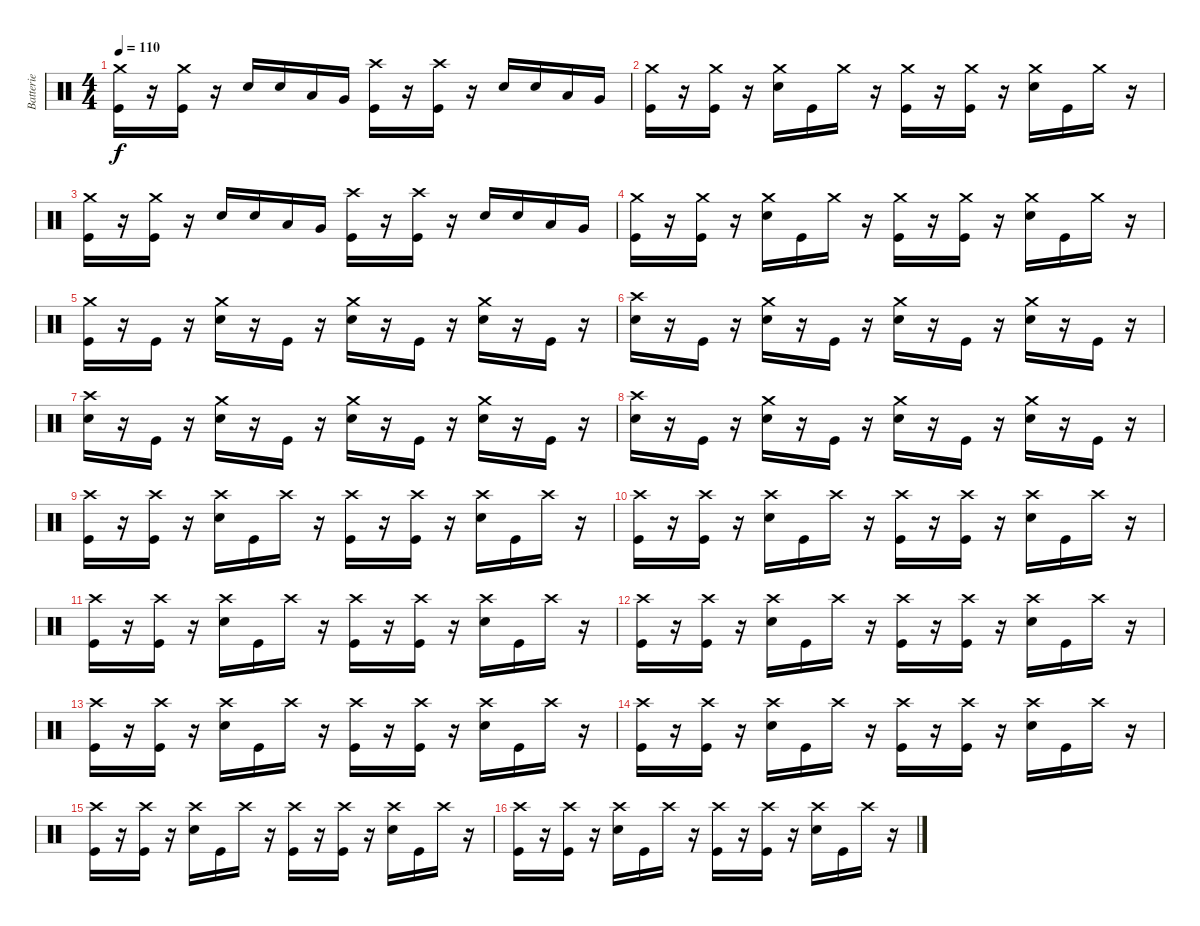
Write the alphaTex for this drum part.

\track ("Batterie" "Batterie") {instrument percussion}
\staff {score}
\articulation defaults
\ts (4 4)
\tempo 110
\clef neutral
\ks c
("Crash medium (hit)" "Kick (hit)").16{dy f} r.16 ("Crash medium (hit)" "Kick (hit)").16 r.16 "Electric Snare (hit)".16 "Electric Snare (hit)".16 "Low Tom (hit)".16 "Very Low Tom (hit)".16 ("Crash high (hit)" "Kick (hit)").16 r.16 ("Crash high (hit)" "Kick (hit)").16 r.16 "Electric Snare (hit)".16 "Electric Snare (hit)".16 "Low Tom (hit)".16 "Very Low Tom (hit)".16 |
("Crash medium (hit)" "Kick (hit)").16 r.16 ("Crash medium (hit)" "Kick (hit)").16 r.16 ("Crash medium (hit)" "Electric Snare (hit)").16 "Kick (hit)".16 "Crash medium (hit)".16 r.16 ("Crash medium (hit)" "Kick (hit)").16 r.16 ("Crash medium (hit)" "Kick (hit)").16 r.16 ("Crash medium (hit)" "Electric Snare (hit)").16 "Kick (hit)".16 "Crash medium (hit)".16 r.16 |
("Crash medium (hit)" "Kick (hit)").16 r.16 ("Crash medium (hit)" "Kick (hit)").16 r.16 "Electric Snare (hit)".16 "Electric Snare (hit)".16 "Low Tom (hit)".16 "Very Low Tom (hit)".16 ("Crash high (hit)" "Kick (hit)").16 r.16 ("Crash high (hit)" "Kick (hit)").16 r.16 "Electric Snare (hit)".16 "Electric Snare (hit)".16 "Low Tom (hit)".16 "Very Low Tom (hit)".16 |
("Crash medium (hit)" "Kick (hit)").16 r.16 ("Crash medium (hit)" "Kick (hit)").16 r.16 ("Crash medium (hit)" "Electric Snare (hit)").16 "Kick (hit)".16 "Crash medium (hit)".16 r.16 ("Crash medium (hit)" "Kick (hit)").16 r.16 ("Crash medium (hit)" "Kick (hit)").16 r.16 ("Crash medium (hit)" "Electric Snare (hit)").16 "Kick (hit)".16 "Crash medium (hit)".16 r.16 |
("Crash medium (hit)" "Kick (hit)").16 r.16 "Kick (hit)".16 r.16 ("Crash medium (hit)" "Electric Snare (hit)").16 r.16 "Kick (hit)".16 r.16 ("Crash medium (hit)" "Electric Snare (hit)").16 r.16 "Kick (hit)".16 r.16 ("Crash medium (hit)" "Electric Snare (hit)").16 r.16 "Kick (hit)".16 r.16 |
("Crash high (hit)" "Electric Snare (hit)").16 r.16 "Kick (hit)".16 r.16 ("Crash medium (hit)" "Electric Snare (hit)").16 r.16 "Kick (hit)".16 r.16 ("Crash medium (hit)" "Electric Snare (hit)").16 r.16 "Kick (hit)".16 r.16 ("Crash medium (hit)" "Electric Snare (hit)").16 r.16 "Kick (hit)".16 r.16 |
("Crash high (hit)" "Electric Snare (hit)").16 r.16 "Kick (hit)".16 r.16 ("Crash medium (hit)" "Electric Snare (hit)").16 r.16 "Kick (hit)".16 r.16 ("Crash medium (hit)" "Electric Snare (hit)").16 r.16 "Kick (hit)".16 r.16 ("Crash medium (hit)" "Electric Snare (hit)").16 r.16 "Kick (hit)".16 r.16 |
("Crash high (hit)" "Electric Snare (hit)").16 r.16 "Kick (hit)".16 r.16 ("Crash medium (hit)" "Electric Snare (hit)").16 r.16 "Kick (hit)".16 r.16 ("Crash medium (hit)" "Electric Snare (hit)").16 r.16 "Kick (hit)".16 r.16 ("Crash medium (hit)" "Electric Snare (hit)").16 r.16 "Kick (hit)".16 r.16 |
("Crash high (hit)" "Kick (hit)").16 r.16 ("Crash high (hit)" "Kick (hit)").16 r.16 ("Crash high (hit)" "Electric Snare (hit)").16 "Kick (hit)".16 "Crash high (hit)".16 r.16 ("Crash high (hit)" "Kick (hit)").16 r.16 ("Crash high (hit)" "Kick (hit)").16 r.16 ("Crash high (hit)" "Electric Snare (hit)").16 "Kick (hit)".16 "Crash high (hit)".16 r.16 |
("Crash high (hit)" "Kick (hit)").16 r.16 ("Crash high (hit)" "Kick (hit)").16 r.16 ("Crash high (hit)" "Electric Snare (hit)").16 "Kick (hit)".16 "Crash high (hit)".16 r.16 ("Crash high (hit)" "Kick (hit)").16 r.16 ("Crash high (hit)" "Kick (hit)").16 r.16 ("Crash high (hit)" "Electric Snare (hit)").16 "Kick (hit)".16 "Crash high (hit)".16 r.16 |
("Crash high (hit)" "Kick (hit)").16 r.16 ("Crash high (hit)" "Kick (hit)").16 r.16 ("Crash high (hit)" "Electric Snare (hit)").16 "Kick (hit)".16 "Crash high (hit)".16 r.16 ("Crash high (hit)" "Kick (hit)").16 r.16 ("Crash high (hit)" "Kick (hit)").16 r.16 ("Crash high (hit)" "Electric Snare (hit)").16 "Kick (hit)".16 "Crash high (hit)".16 r.16 |
("Crash high (hit)" "Kick (hit)").16 r.16 ("Crash high (hit)" "Kick (hit)").16 r.16 ("Crash high (hit)" "Electric Snare (hit)").16 "Kick (hit)".16 "Crash high (hit)".16 r.16 ("Crash high (hit)" "Kick (hit)").16 r.16 ("Crash high (hit)" "Kick (hit)").16 r.16 ("Crash high (hit)" "Electric Snare (hit)").16 "Kick (hit)".16 "Crash high (hit)".16 r.16 |
("Crash high (hit)" "Kick (hit)").16 r.16 ("Crash high (hit)" "Kick (hit)").16 r.16 ("Crash high (hit)" "Electric Snare (hit)").16 "Kick (hit)".16 "Crash high (hit)".16 r.16 ("Crash high (hit)" "Kick (hit)").16 r.16 ("Crash high (hit)" "Kick (hit)").16 r.16 ("Crash high (hit)" "Electric Snare (hit)").16 "Kick (hit)".16 "Crash high (hit)".16 r.16 |
("Crash high (hit)" "Kick (hit)").16 r.16 ("Crash high (hit)" "Kick (hit)").16 r.16 ("Crash high (hit)" "Electric Snare (hit)").16 "Kick (hit)".16 "Crash high (hit)".16 r.16 ("Crash high (hit)" "Kick (hit)").16 r.16 ("Crash high (hit)" "Kick (hit)").16 r.16 ("Crash high (hit)" "Electric Snare (hit)").16 "Kick (hit)".16 "Crash high (hit)".16 r.16 |
("Crash high (hit)" "Kick (hit)").16 r.16 ("Crash high (hit)" "Kick (hit)").16 r.16 ("Crash high (hit)" "Electric Snare (hit)").16 "Kick (hit)".16 "Crash high (hit)".16 r.16 ("Crash high (hit)" "Kick (hit)").16 r.16 ("Crash high (hit)" "Kick (hit)").16 r.16 ("Crash high (hit)" "Electric Snare (hit)").16 "Kick (hit)".16 "Crash high (hit)".16 r.16 |
("Crash high (hit)" "Kick (hit)").16 r.16 ("Crash high (hit)" "Kick (hit)").16 r.16 ("Crash high (hit)" "Electric Snare (hit)").16 "Kick (hit)".16 "Crash high (hit)".16 r.16 ("Crash high (hit)" "Kick (hit)").16 r.16 ("Crash high (hit)" "Kick (hit)").16 r.16 ("Crash high (hit)" "Electric Snare (hit)").16 "Kick (hit)".16 "Crash high (hit)".16 r.16
